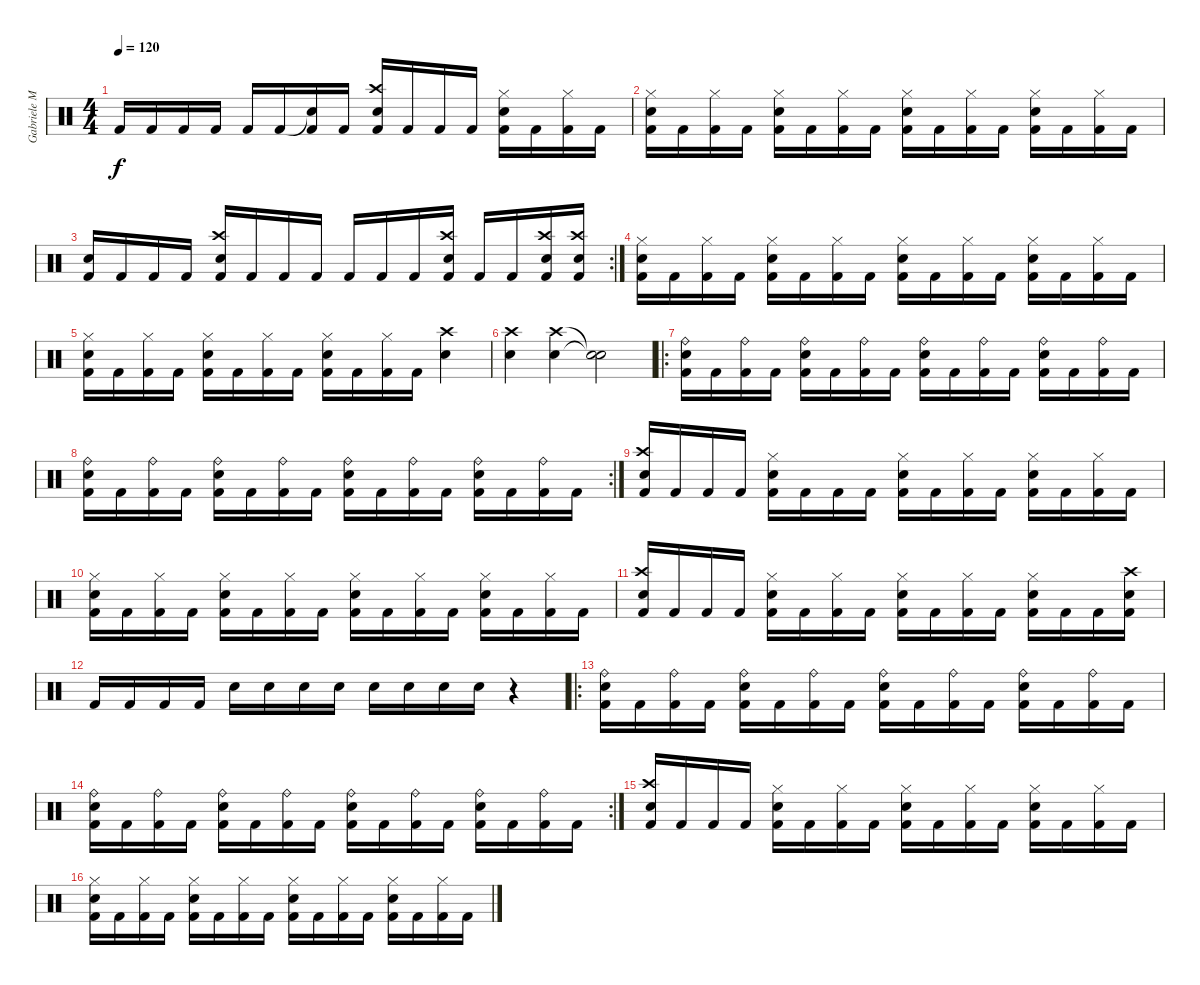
\track ("Gabriele Malatesta" "Gabriele M") {instrument percussion}
\staff {score}
\articulation defaults
\ts (4 4)
\tempo 120
\clef neutral
\ks c "Kick (hit) 2".16{dy f} "Kick (hit) 2".16 "Kick (hit) 2".16 "Kick (hit) 2".16 "Kick (hit) 2".16 "Kick (hit) 2".16
("Snare (hit)"{t} "Kick (hit) 2").16 "Kick (hit) 2".16 ("Crash high (hit)" "Electric Snare (hit)" "Kick (hit) 2").16 "Kick (hit) 2".16 "Kick (hit) 2".16 "Kick (hit) 2".16 ("Hi-Hat (closed)" "Electric Snare (hit)" "Kick (hit) 2").16 "Kick (hit) 2".16 ("Hi-Hat (closed)" "Kick (hit) 2").16 "Kick (hit) 2".16 |
("Hi-Hat (closed)" "Electric Snare (hit)" "Kick (hit) 2").16 "Kick (hit) 2".16 ("Hi-Hat (closed)" "Kick (hit) 2").16 "Kick (hit) 2".16 ("Hi-Hat (closed)" "Electric Snare (hit)" "Kick (hit) 2").16 "Kick (hit) 2".16 ("Hi-Hat (closed)" "Kick (hit) 2").16 "Kick (hit) 2".16 ("Hi-Hat (closed)" "Electric Snare (hit)" "Kick (hit) 2").16 "Kick (hit) 2".16 ("Hi-Hat (closed)" "Kick (hit) 2").16 "Kick (hit) 2".16 ("Hi-Hat (closed)" "Electric Snare (hit)" "Kick (hit) 2").16 "Kick (hit) 2".16 ("Hi-Hat (closed)" "Kick (hit) 2").16 "Kick (hit) 2".16 |
\rc 2
("Electric Snare (hit)" "Kick (hit) 2").16 "Kick (hit) 2".16 "Kick (hit) 2".16 "Kick (hit) 2".16 ("Crash high (hit)" "Electric Snare (hit)" "Kick (hit) 2").16 "Kick (hit) 2".16 "Kick (hit) 2".16 "Kick (hit) 2".16 "Kick (hit) 2".16 "Kick (hit) 2".16 "Kick (hit) 2".16 ("Crash high (hit)" "Electric Snare (hit)" "Kick (hit) 2").16 "Kick (hit) 2".16 "Kick (hit) 2".16 ("Crash high (hit)" "Electric Snare (hit)" "Kick (hit) 2").16 ("Crash high (hit)" "Electric Snare (hit)" "Kick (hit) 2").16 |
("Hi-Hat (closed)" "Electric Snare (hit)" "Kick (hit) 2").16 "Kick (hit) 2".16 ("Hi-Hat (closed)" "Kick (hit) 2").16 "Kick (hit) 2".16 ("Hi-Hat (closed)" "Electric Snare (hit)" "Kick (hit) 2").16 "Kick (hit) 2".16 ("Hi-Hat (closed)" "Kick (hit) 2").16 "Kick (hit) 2".16 ("Hi-Hat (closed)" "Electric Snare (hit)" "Kick (hit) 2").16 "Kick (hit) 2".16 ("Hi-Hat (closed)" "Kick (hit) 2").16 "Kick (hit) 2".16 ("Hi-Hat (closed)" "Electric Snare (hit)" "Kick (hit) 2").16 "Kick (hit) 2".16 ("Hi-Hat (closed)" "Kick (hit) 2").16 "Kick (hit) 2".16 |
("Hi-Hat (closed)" "Electric Snare (hit)" "Kick (hit) 2").16 "Kick (hit) 2".16 ("Hi-Hat (closed)" "Kick (hit) 2").16 "Kick (hit) 2".16 ("Hi-Hat (closed)" "Electric Snare (hit)" "Kick (hit) 2").16 "Kick (hit) 2".16 ("Hi-Hat (closed)" "Kick (hit) 2").16 "Kick (hit) 2".16 ("Hi-Hat (closed)" "Electric Snare (hit)" "Kick (hit) 2").16 "Kick (hit) 2".16 ("Hi-Hat (closed)" "Kick (hit) 2").16 "Kick (hit) 2".16 ("Crash high (hit)" "Electric Snare (hit)").4 |
("Crash high (hit)" "Electric Snare (hit)").4 ("Crash high (hit)" "Electric Snare (hit)").4 ("Snare (hit)"{t} "Snare (hit)"{t}).2 |
\ro
("Ride (bell)" "Electric Snare (hit)" "Kick (hit) 2").16 "Kick (hit) 2".16 ("Ride (bell)" "Kick (hit) 2").16 "Kick (hit) 2".16 ("Ride (bell)" "Electric Snare (hit)" "Kick (hit) 2").16 "Kick (hit) 2".16 ("Ride (bell)" "Kick (hit) 2").16 "Kick (hit) 2".16 ("Ride (bell)" "Electric Snare (hit)" "Kick (hit) 2").16 "Kick (hit) 2".16 ("Ride (bell)" "Kick (hit) 2").16 "Kick (hit) 2".16 ("Ride (bell)" "Electric Snare (hit)" "Kick (hit) 2").16 "Kick (hit) 2".16 ("Ride (bell)" "Kick (hit) 2").16 "Kick (hit) 2".16 |
\rc 2
("Ride (bell)" "Electric Snare (hit)" "Kick (hit) 2").16 "Kick (hit) 2".16 ("Ride (bell)" "Kick (hit) 2").16 "Kick (hit) 2".16 ("Ride (bell)" "Electric Snare (hit)" "Kick (hit) 2").16 "Kick (hit) 2".16 ("Ride (bell)" "Kick (hit) 2").16 "Kick (hit) 2".16 ("Ride (bell)" "Electric Snare (hit)" "Kick (hit) 2").16 "Kick (hit) 2".16 ("Ride (bell)" "Kick (hit) 2").16 "Kick (hit) 2".16 ("Ride (bell)" "Electric Snare (hit)" "Kick (hit) 2").16 "Kick (hit) 2".16 ("Ride (bell)" "Kick (hit) 2").16 "Kick (hit) 2".16 |
("Crash high (hit)" "Electric Snare (hit)" "Kick (hit) 2").16 "Kick (hit) 2".16 "Kick (hit) 2".16 "Kick (hit) 2".16 ("Hi-Hat (closed)" "Electric Snare (hit)" "Kick (hit) 2").16 "Kick (hit) 2".16 "Kick (hit) 2".16 "Kick (hit) 2".16 ("Hi-Hat (closed)" "Electric Snare (hit)" "Kick (hit) 2").16 "Kick (hit) 2".16 ("Hi-Hat (closed)" "Kick (hit) 2").16 "Kick (hit) 2".16 ("Hi-Hat (closed)" "Electric Snare (hit)" "Kick (hit) 2").16 "Kick (hit) 2".16 ("Hi-Hat (closed)" "Kick (hit) 2").16 "Kick (hit) 2".16 |
("Hi-Hat (closed)" "Electric Snare (hit)" "Kick (hit) 2").16 "Kick (hit) 2".16 ("Hi-Hat (closed)" "Kick (hit) 2").16 "Kick (hit) 2".16 ("Hi-Hat (closed)" "Electric Snare (hit)" "Kick (hit) 2").16 "Kick (hit) 2".16 ("Hi-Hat (closed)" "Kick (hit) 2").16 "Kick (hit) 2".16 ("Hi-Hat (closed)" "Electric Snare (hit)" "Kick (hit) 2").16 "Kick (hit) 2".16 ("Hi-Hat (closed)" "Kick (hit) 2").16 "Kick (hit) 2".16 ("Hi-Hat (closed)" "Electric Snare (hit)" "Kick (hit) 2").16 "Kick (hit) 2".16 ("Hi-Hat (closed)" "Kick (hit) 2").16 "Kick (hit) 2".16 |
("Crash high (hit)" "Electric Snare (hit)" "Kick (hit) 2").16 "Kick (hit) 2".16 "Kick (hit) 2".16 "Kick (hit) 2".16 ("Hi-Hat (closed)" "Electric Snare (hit)" "Kick (hit) 2").16 "Kick (hit) 2".16 ("Hi-Hat (closed)" "Kick (hit) 2").16 "Kick (hit) 2".16 ("Hi-Hat (closed)" "Electric Snare (hit)" "Kick (hit) 2").16 "Kick (hit) 2".16 ("Hi-Hat (closed)" "Kick (hit) 2").16 "Kick (hit) 2".16 ("Hi-Hat (closed)" "Electric Snare (hit)" "Kick (hit) 2").16 "Kick (hit) 2".16 "Kick (hit) 2".16 ("Crash high (hit)" "Electric Snare (hit)" "Kick (hit) 2").16 |
"Kick (hit) 2".16 "Kick (hit) 2".16 "Kick (hit) 2".16 "Kick (hit) 2".16 "Electric Snare (hit)".16 "Electric Snare (hit)".16 "Electric Snare (hit)".16 "Electric Snare (hit)".16 "Electric Snare (hit)".16 "Electric Snare (hit)".16 "Electric Snare (hit)".16 "Electric Snare (hit)".16 r.4 |
\ro
("Ride (bell)" "Electric Snare (hit)" "Kick (hit) 2").16 "Kick (hit) 2".16 ("Ride (bell)" "Kick (hit) 2").16 "Kick (hit) 2".16 ("Ride (bell)" "Electric Snare (hit)" "Kick (hit) 2").16 "Kick (hit) 2".16 ("Ride (bell)" "Kick (hit) 2").16 "Kick (hit) 2".16 ("Ride (bell)" "Electric Snare (hit)" "Kick (hit) 2").16 "Kick (hit) 2".16 ("Ride (bell)" "Kick (hit) 2").16 "Kick (hit) 2".16 ("Ride (bell)" "Electric Snare (hit)" "Kick (hit) 2").16 "Kick (hit) 2".16 ("Ride (bell)" "Kick (hit) 2").16 "Kick (hit) 2".16 |
\rc 2
("Ride (bell)" "Electric Snare (hit)" "Kick (hit) 2").16 "Kick (hit) 2".16 ("Ride (bell)" "Kick (hit) 2").16 "Kick (hit) 2".16 ("Ride (bell)" "Electric Snare (hit)" "Kick (hit) 2").16 "Kick (hit) 2".16 ("Ride (bell)" "Kick (hit) 2").16 "Kick (hit) 2".16 ("Ride (bell)" "Electric Snare (hit)" "Kick (hit) 2").16 "Kick (hit) 2".16 ("Ride (bell)" "Kick (hit) 2").16 "Kick (hit) 2".16 ("Ride (bell)" "Electric Snare (hit)" "Kick (hit) 2").16 "Kick (hit) 2".16 ("Ride (bell)" "Kick (hit) 2").16 "Kick (hit) 2".16 |
("Crash high (hit)" "Electric Snare (hit)" "Kick (hit) 2").16 "Kick (hit) 2".16 "Kick (hit) 2".16 "Kick (hit) 2".16 ("Hi-Hat (closed)" "Electric Snare (hit)" "Kick (hit) 2").16 "Kick (hit) 2".16 ("Hi-Hat (closed)" "Kick (hit) 2").16 "Kick (hit) 2".16 ("Hi-Hat (closed)" "Electric Snare (hit)" "Kick (hit) 2").16 "Kick (hit) 2".16 ("Hi-Hat (closed)" "Kick (hit) 2").16 "Kick (hit) 2".16 ("Hi-Hat (closed)" "Electric Snare (hit)" "Kick (hit) 2").16 "Kick (hit) 2".16 ("Hi-Hat (closed)" "Kick (hit) 2").16 "Kick (hit) 2".16 |
("Hi-Hat (closed)" "Electric Snare (hit)" "Kick (hit) 2").16 "Kick (hit) 2".16 ("Hi-Hat (closed)" "Kick (hit) 2").16 "Kick (hit) 2".16 ("Hi-Hat (closed)" "Electric Snare (hit)" "Kick (hit) 2").16 "Kick (hit) 2".16 ("Hi-Hat (closed)" "Kick (hit) 2").16 "Kick (hit) 2".16 ("Hi-Hat (closed)" "Electric Snare (hit)" "Kick (hit) 2").16 "Kick (hit) 2".16 ("Hi-Hat (closed)" "Kick (hit) 2").16 "Kick (hit) 2".16 ("Hi-Hat (closed)" "Electric Snare (hit)" "Kick (hit) 2").16 "Kick (hit) 2".16 ("Hi-Hat (closed)" "Kick (hit) 2").16 "Kick (hit) 2".16
